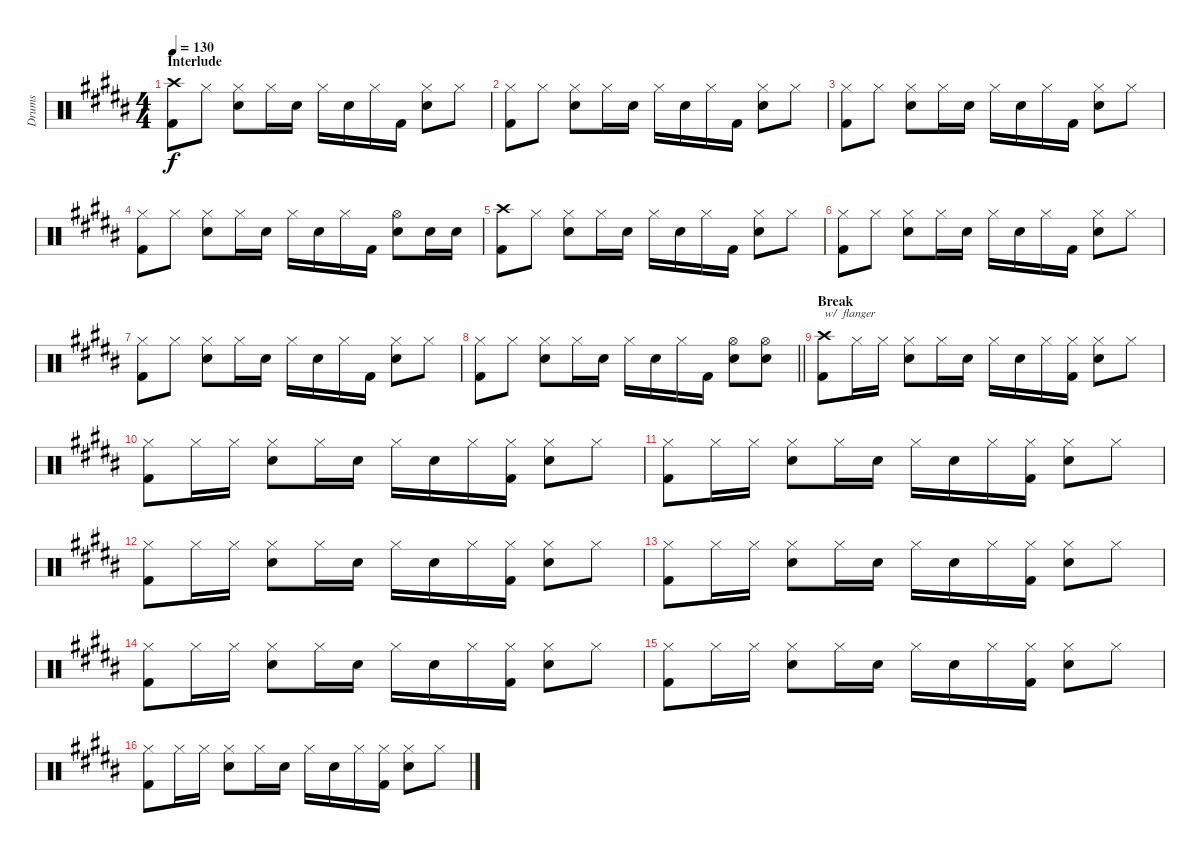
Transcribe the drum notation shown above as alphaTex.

\track ("Drums" "Drums") {instrument percussion}
\staff {score}
\articulation defaults
\ts (4 4)
\section ("" "Interlude")
\tempo 130
\clef neutral
\ks b
("Kick (hit) 2" "Crash high (hit)").8{dy f} "Hi-Hat (closed)".8 ("Snare (hit) 2" "Hi-Hat (closed)").8 "Hi-Hat (closed)".16 "Snare (hit) 2".16 "Hi-Hat (closed)".16 "Snare (hit) 2".16 "Hi-Hat (closed)".16 "Kick (hit) 2".16 ("Snare (hit) 2" "Hi-Hat (closed)").8 "Hi-Hat (closed)".8 |
("Kick (hit) 2" "Hi-Hat (closed)").8 "Hi-Hat (closed)".8 ("Snare (hit) 2" "Hi-Hat (closed)").8 "Hi-Hat (closed)".16 "Snare (hit) 2".16 "Hi-Hat (closed)".16 "Snare (hit) 2".16 "Hi-Hat (closed)".16 "Kick (hit) 2".16 ("Snare (hit) 2" "Hi-Hat (closed)").8 "Hi-Hat (closed)".8 |
("Kick (hit) 2" "Hi-Hat (closed)").8 "Hi-Hat (closed)".8 ("Snare (hit) 2" "Hi-Hat (closed)").8 "Hi-Hat (closed)".16 "Snare (hit) 2".16 "Hi-Hat (closed)".16 "Snare (hit) 2".16 "Hi-Hat (closed)".16 "Kick (hit) 2".16 ("Snare (hit) 2" "Hi-Hat (closed)").8 "Hi-Hat (closed)".8 |
("Kick (hit) 2" "Hi-Hat (closed)").8 "Hi-Hat (closed)".8 ("Snare (hit) 2" "Hi-Hat (closed)").8 "Hi-Hat (closed)".16 "Snare (hit) 2".16 "Hi-Hat (closed)".16 "Snare (hit) 2".16 "Hi-Hat (closed)".16 "Kick (hit) 2".16 ("Snare (hit) 2" "Hi-Hat (open)").8 "Snare (hit) 2".16 "Snare (hit) 2".16 |
("Kick (hit) 2" "Crash high (hit)").8 "Hi-Hat (closed)".8 ("Snare (hit) 2" "Hi-Hat (closed)").8 "Hi-Hat (closed)".16 "Snare (hit) 2".16 "Hi-Hat (closed)".16 "Snare (hit) 2".16 "Hi-Hat (closed)".16 "Kick (hit) 2".16 ("Snare (hit) 2" "Hi-Hat (closed)").8 "Hi-Hat (closed)".8 |
("Kick (hit) 2" "Hi-Hat (closed)").8 "Hi-Hat (closed)".8 ("Snare (hit) 2" "Hi-Hat (closed)").8 "Hi-Hat (closed)".16 "Snare (hit) 2".16 "Hi-Hat (closed)".16 "Snare (hit) 2".16 "Hi-Hat (closed)".16 "Kick (hit) 2".16 ("Snare (hit) 2" "Hi-Hat (closed)").8 "Hi-Hat (closed)".8 |
("Kick (hit) 2" "Hi-Hat (closed)").8 "Hi-Hat (closed)".8 ("Snare (hit) 2" "Hi-Hat (closed)").8 "Hi-Hat (closed)".16 "Snare (hit) 2".16 "Hi-Hat (closed)".16 "Snare (hit) 2".16 "Hi-Hat (closed)".16 "Kick (hit) 2".16 ("Snare (hit) 2" "Hi-Hat (closed)").8 "Hi-Hat (closed)".8 |
\barLineRight lightlight
("Kick (hit) 2" "Hi-Hat (closed)").8 "Hi-Hat (closed)".8 ("Snare (hit) 2" "Hi-Hat (closed)").8 "Hi-Hat (closed)".16 "Snare (hit) 2".16 "Hi-Hat (closed)".16 "Snare (hit) 2".16 "Hi-Hat (closed)".16 "Kick (hit) 2".16 ("Snare (hit) 2" "Hi-Hat (open)").8 ("Snare (hit) 2" "Hi-Hat (open)").8 |
\section ("" "Break")
("Kick (hit) 2" "Crash high (hit)").8{txt "w/  flanger" volume 11} "Hi-Hat (closed)".16 "Hi-Hat (closed)".16 ("Snare (hit) 2" "Hi-Hat (closed)").8 "Hi-Hat (closed)".16 "Snare (hit) 2".16 "Hi-Hat (closed)".16 "Snare (hit) 2".16 "Hi-Hat (closed)".16 ("Kick (hit) 2" "Hi-Hat (closed)").16 ("Snare (hit) 2" "Hi-Hat (closed)").8 "Hi-Hat (closed)".8 |
("Kick (hit) 2" "Hi-Hat (closed)").8{volume 11} "Hi-Hat (closed)".16 "Hi-Hat (closed)".16 ("Snare (hit) 2" "Hi-Hat (closed)").8 "Hi-Hat (closed)".16 "Snare (hit) 2".16 "Hi-Hat (closed)".16 "Snare (hit) 2".16 "Hi-Hat (closed)".16 ("Kick (hit) 2" "Hi-Hat (closed)").16 ("Snare (hit) 2" "Hi-Hat (closed)").8 "Hi-Hat (closed)".8 |
("Kick (hit) 2" "Hi-Hat (closed)").8{volume 11} "Hi-Hat (closed)".16 "Hi-Hat (closed)".16 ("Snare (hit) 2" "Hi-Hat (closed)").8 "Hi-Hat (closed)".16 "Snare (hit) 2".16 "Hi-Hat (closed)".16 "Snare (hit) 2".16 "Hi-Hat (closed)".16 ("Kick (hit) 2" "Hi-Hat (closed)").16 ("Snare (hit) 2" "Hi-Hat (closed)").8 "Hi-Hat (closed)".8 |
("Kick (hit) 2" "Hi-Hat (closed)").8{volume 11} "Hi-Hat (closed)".16 "Hi-Hat (closed)".16 ("Snare (hit) 2" "Hi-Hat (closed)").8 "Hi-Hat (closed)".16 "Snare (hit) 2".16 "Hi-Hat (closed)".16 "Snare (hit) 2".16 "Hi-Hat (closed)".16 ("Kick (hit) 2" "Hi-Hat (closed)").16 ("Snare (hit) 2" "Hi-Hat (closed)").8 "Hi-Hat (closed)".8 |
("Kick (hit) 2" "Hi-Hat (closed)").8{volume 11} "Hi-Hat (closed)".16 "Hi-Hat (closed)".16 ("Snare (hit) 2" "Hi-Hat (closed)").8 "Hi-Hat (closed)".16 "Snare (hit) 2".16 "Hi-Hat (closed)".16 "Snare (hit) 2".16 "Hi-Hat (closed)".16 ("Kick (hit) 2" "Hi-Hat (closed)").16 ("Snare (hit) 2" "Hi-Hat (closed)").8 "Hi-Hat (closed)".8 |
("Kick (hit) 2" "Hi-Hat (closed)").8{volume 11} "Hi-Hat (closed)".16 "Hi-Hat (closed)".16 ("Snare (hit) 2" "Hi-Hat (closed)").8 "Hi-Hat (closed)".16 "Snare (hit) 2".16 "Hi-Hat (closed)".16 "Snare (hit) 2".16 "Hi-Hat (closed)".16 ("Kick (hit) 2" "Hi-Hat (closed)").16 ("Snare (hit) 2" "Hi-Hat (closed)").8 "Hi-Hat (closed)".8 |
("Kick (hit) 2" "Hi-Hat (closed)").8{volume 11} "Hi-Hat (closed)".16 "Hi-Hat (closed)".16 ("Snare (hit) 2" "Hi-Hat (closed)").8 "Hi-Hat (closed)".16 "Snare (hit) 2".16 "Hi-Hat (closed)".16 "Snare (hit) 2".16 "Hi-Hat (closed)".16 ("Kick (hit) 2" "Hi-Hat (closed)").16 ("Snare (hit) 2" "Hi-Hat (closed)").8 "Hi-Hat (closed)".8 |
("Kick (hit) 2" "Hi-Hat (closed)").8{volume 11} "Hi-Hat (closed)".16 "Hi-Hat (closed)".16 ("Snare (hit) 2" "Hi-Hat (closed)").8 "Hi-Hat (closed)".16 "Snare (hit) 2".16 "Hi-Hat (closed)".16 "Snare (hit) 2".16 "Hi-Hat (closed)".16 ("Kick (hit) 2" "Hi-Hat (closed)").16 ("Snare (hit) 2" "Hi-Hat (closed)").8 "Hi-Hat (closed)".8
